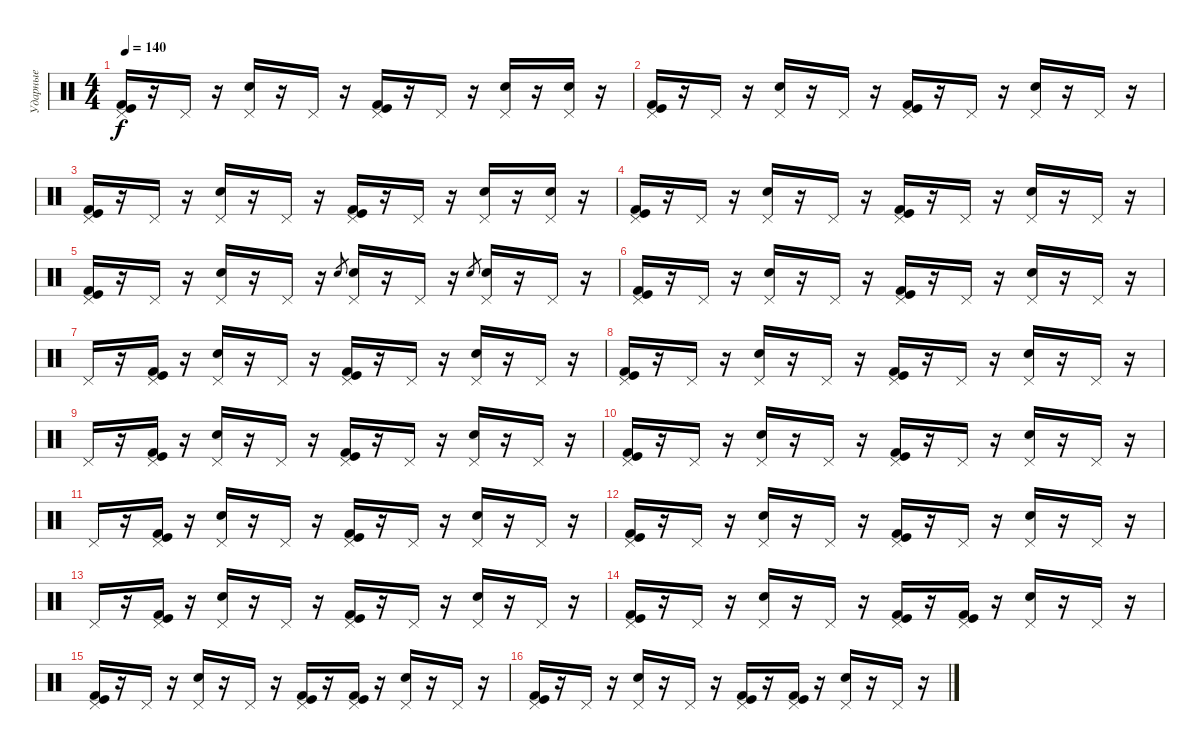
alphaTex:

\track ("Ударные" "Ударные") {instrument percussion}
\staff {score}
\articulation defaults
\ts (4 4)
\tempo 140
\clef neutral
\ks c
("Kick (hit) 2" "Kick (hit)" "Pedal Hi-Hat (hit)").16{dy f} r.16 "Pedal Hi-Hat (hit)".16 r.16 ("Snare (hit) 2" "Pedal Hi-Hat (hit)").16 r.16 "Pedal Hi-Hat (hit)".16 r.16 ("Kick (hit) 2" "Kick (hit)" "Pedal Hi-Hat (hit)").16 r.16 "Pedal Hi-Hat (hit)".16 r.16 ("Snare (hit) 2" "Pedal Hi-Hat (hit)").16 r.16 ("Snare (hit) 2" "Pedal Hi-Hat (hit)").16 r.16 |
("Kick (hit) 2" "Kick (hit)" "Pedal Hi-Hat (hit)").16 r.16 "Pedal Hi-Hat (hit)".16 r.16 ("Snare (hit) 2" "Pedal Hi-Hat (hit)").16 r.16 "Pedal Hi-Hat (hit)".16 r.16 ("Kick (hit) 2" "Kick (hit)" "Pedal Hi-Hat (hit)").16 r.16 "Pedal Hi-Hat (hit)".16 r.16 ("Snare (hit) 2" "Pedal Hi-Hat (hit)").16 r.16 "Pedal Hi-Hat (hit)".16 r.16 |
("Kick (hit) 2" "Kick (hit)" "Pedal Hi-Hat (hit)").16 r.16 "Pedal Hi-Hat (hit)".16 r.16 ("Snare (hit) 2" "Pedal Hi-Hat (hit)").16 r.16 "Pedal Hi-Hat (hit)".16 r.16 ("Kick (hit) 2" "Kick (hit)" "Pedal Hi-Hat (hit)").16 r.16 "Pedal Hi-Hat (hit)".16 r.16 ("Snare (hit) 2" "Pedal Hi-Hat (hit)").16 r.16 ("Snare (hit) 2" "Pedal Hi-Hat (hit)").16 r.16 |
("Kick (hit) 2" "Kick (hit)" "Pedal Hi-Hat (hit)").16 r.16 "Pedal Hi-Hat (hit)".16 r.16 ("Snare (hit) 2" "Pedal Hi-Hat (hit)").16 r.16 "Pedal Hi-Hat (hit)".16 r.16 ("Kick (hit) 2" "Kick (hit)" "Pedal Hi-Hat (hit)").16 r.16 "Pedal Hi-Hat (hit)".16 r.16 ("Snare (hit) 2" "Pedal Hi-Hat (hit)").16 r.16 "Pedal Hi-Hat (hit)".16 r.16 |
("Kick (hit) 2" "Kick (hit)" "Pedal Hi-Hat (hit)").16 r.16 "Pedal Hi-Hat (hit)".16 r.16 ("Snare (hit) 2" "Pedal Hi-Hat (hit)").16 r.16 "Pedal Hi-Hat (hit)".16 r.16 "Snare (hit) 2".8{gr} ("Snare (hit) 2" "Pedal Hi-Hat (hit)").16 r.16 "Pedal Hi-Hat (hit)".16 r.16 "Snare (hit) 2".8{gr} ("Snare (hit) 2" "Pedal Hi-Hat (hit)").16 r.16 "Pedal Hi-Hat (hit)".16 r.16 |
("Kick (hit) 2" "Kick (hit)" "Pedal Hi-Hat (hit)").16 r.16 "Pedal Hi-Hat (hit)".16 r.16 ("Snare (hit) 2" "Pedal Hi-Hat (hit)").16 r.16 "Pedal Hi-Hat (hit)".16 r.16 ("Kick (hit) 2" "Kick (hit)" "Pedal Hi-Hat (hit)").16 r.16 "Pedal Hi-Hat (hit)".16 r.16 ("Snare (hit) 2" "Pedal Hi-Hat (hit)").16 r.16 "Pedal Hi-Hat (hit)".16 r.16 |
"Pedal Hi-Hat (hit)".16 r.16 ("Kick (hit) 2" "Kick (hit)" "Pedal Hi-Hat (hit)").16 r.16 ("Snare (hit) 2" "Pedal Hi-Hat (hit)").16 r.16 "Pedal Hi-Hat (hit)".16 r.16 ("Kick (hit) 2" "Kick (hit)" "Pedal Hi-Hat (hit)").16 r.16 "Pedal Hi-Hat (hit)".16 r.16 ("Snare (hit) 2" "Pedal Hi-Hat (hit)").16 r.16 "Pedal Hi-Hat (hit)".16 r.16 |
("Kick (hit) 2" "Kick (hit)" "Pedal Hi-Hat (hit)").16 r.16 "Pedal Hi-Hat (hit)".16 r.16 ("Snare (hit) 2" "Pedal Hi-Hat (hit)").16 r.16 "Pedal Hi-Hat (hit)".16 r.16 ("Kick (hit) 2" "Kick (hit)" "Pedal Hi-Hat (hit)").16 r.16 "Pedal Hi-Hat (hit)".16 r.16 ("Snare (hit) 2" "Pedal Hi-Hat (hit)").16 r.16 "Pedal Hi-Hat (hit)".16 r.16 |
"Pedal Hi-Hat (hit)".16 r.16 ("Kick (hit) 2" "Kick (hit)" "Pedal Hi-Hat (hit)").16 r.16 ("Snare (hit) 2" "Pedal Hi-Hat (hit)").16 r.16 "Pedal Hi-Hat (hit)".16 r.16 ("Kick (hit) 2" "Kick (hit)" "Pedal Hi-Hat (hit)").16 r.16 "Pedal Hi-Hat (hit)".16 r.16 ("Snare (hit) 2" "Pedal Hi-Hat (hit)").16 r.16 "Pedal Hi-Hat (hit)".16 r.16 |
("Kick (hit) 2" "Kick (hit)" "Pedal Hi-Hat (hit)").16 r.16 "Pedal Hi-Hat (hit)".16 r.16 ("Snare (hit) 2" "Pedal Hi-Hat (hit)").16 r.16 "Pedal Hi-Hat (hit)".16 r.16 ("Kick (hit) 2" "Kick (hit)" "Pedal Hi-Hat (hit)").16 r.16 "Pedal Hi-Hat (hit)".16 r.16 ("Snare (hit) 2" "Pedal Hi-Hat (hit)").16 r.16 "Pedal Hi-Hat (hit)".16 r.16 |
"Pedal Hi-Hat (hit)".16 r.16 ("Kick (hit) 2" "Kick (hit)" "Pedal Hi-Hat (hit)").16 r.16 ("Snare (hit) 2" "Pedal Hi-Hat (hit)").16 r.16 "Pedal Hi-Hat (hit)".16 r.16 ("Kick (hit) 2" "Kick (hit)" "Pedal Hi-Hat (hit)").16 r.16 "Pedal Hi-Hat (hit)".16 r.16 ("Snare (hit) 2" "Pedal Hi-Hat (hit)").16 r.16 "Pedal Hi-Hat (hit)".16 r.16 |
("Kick (hit) 2" "Kick (hit)" "Pedal Hi-Hat (hit)").16 r.16 "Pedal Hi-Hat (hit)".16 r.16 ("Snare (hit) 2" "Pedal Hi-Hat (hit)").16 r.16 "Pedal Hi-Hat (hit)".16 r.16 ("Kick (hit) 2" "Kick (hit)" "Pedal Hi-Hat (hit)").16 r.16 "Pedal Hi-Hat (hit)".16 r.16 ("Snare (hit) 2" "Pedal Hi-Hat (hit)").16 r.16 "Pedal Hi-Hat (hit)".16 r.16 |
"Pedal Hi-Hat (hit)".16 r.16 ("Kick (hit) 2" "Kick (hit)" "Pedal Hi-Hat (hit)").16 r.16 ("Snare (hit) 2" "Pedal Hi-Hat (hit)").16 r.16 "Pedal Hi-Hat (hit)".16 r.16 ("Kick (hit) 2" "Kick (hit)" "Pedal Hi-Hat (hit)").16 r.16 "Pedal Hi-Hat (hit)".16 r.16 ("Snare (hit) 2" "Pedal Hi-Hat (hit)").16 r.16 "Pedal Hi-Hat (hit)".16 r.16 |
("Kick (hit) 2" "Kick (hit)" "Pedal Hi-Hat (hit)").16 r.16 "Pedal Hi-Hat (hit)".16 r.16 ("Electric Snare (hit)" "Pedal Hi-Hat (hit)").16 r.16 "Pedal Hi-Hat (hit)".16 r.16 ("Kick (hit) 2" "Kick (hit)" "Pedal Hi-Hat (hit)").16 r.16 ("Kick (hit) 2" "Kick (hit)" "Pedal Hi-Hat (hit)").16 r.16 ("Electric Snare (hit)" "Pedal Hi-Hat (hit)").16 r.16 "Pedal Hi-Hat (hit)".16 r.16 |
("Kick (hit) 2" "Kick (hit)" "Pedal Hi-Hat (hit)").16 r.16 "Pedal Hi-Hat (hit)".16 r.16 ("Electric Snare (hit)" "Pedal Hi-Hat (hit)").16 r.16 "Pedal Hi-Hat (hit)".16 r.16 ("Kick (hit) 2" "Kick (hit)" "Pedal Hi-Hat (hit)").16 r.16 ("Kick (hit) 2" "Kick (hit)" "Pedal Hi-Hat (hit)").16 r.16 ("Electric Snare (hit)" "Pedal Hi-Hat (hit)").16 r.16 "Pedal Hi-Hat (hit)".16 r.16 |
("Kick (hit) 2" "Kick (hit)" "Pedal Hi-Hat (hit)").16 r.16 "Pedal Hi-Hat (hit)".16 r.16 ("Electric Snare (hit)" "Pedal Hi-Hat (hit)").16 r.16 "Pedal Hi-Hat (hit)".16 r.16 ("Kick (hit) 2" "Kick (hit)" "Pedal Hi-Hat (hit)").16 r.16 ("Kick (hit) 2" "Kick (hit)" "Pedal Hi-Hat (hit)").16 r.16 ("Electric Snare (hit)" "Pedal Hi-Hat (hit)").16 r.16 "Pedal Hi-Hat (hit)".16 r.16
